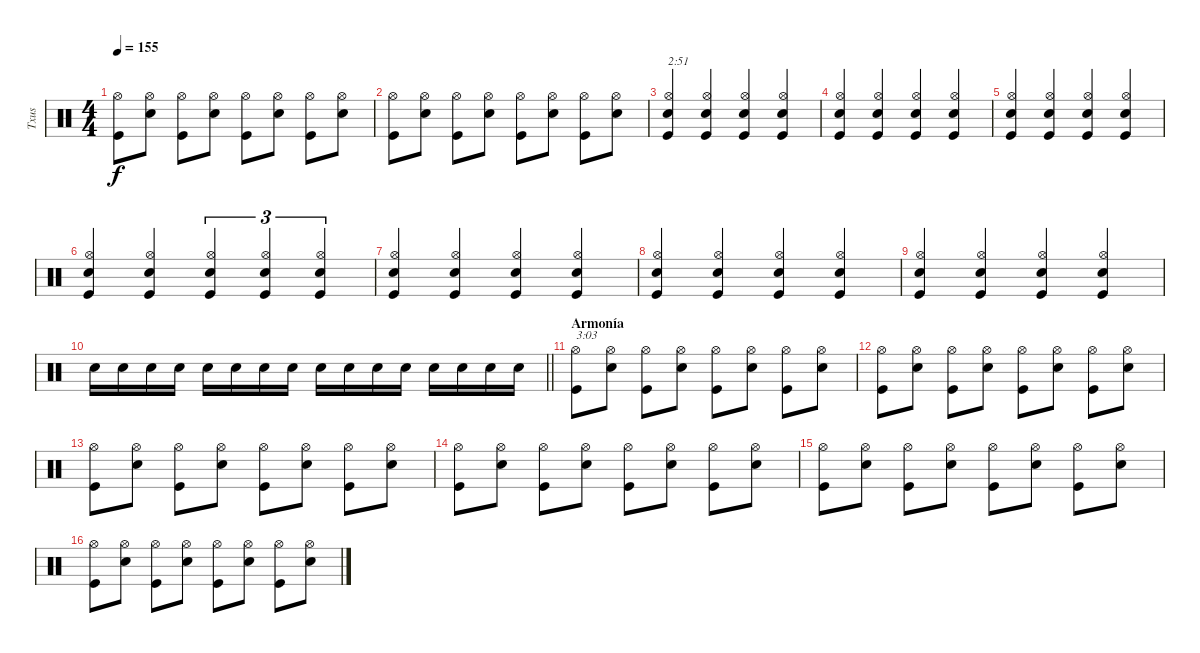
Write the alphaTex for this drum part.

\track ("Txus" "Txus") {instrument percussion}
\staff {score}
\articulation defaults
\ts (4 4)
\tempo 155
\clef neutral
\ks c
("Kick (hit)" "Hi-Hat (open)").8{dy f} ("Snare (hit) 2" "Hi-Hat (open)").8 ("Kick (hit)" "Hi-Hat (open)").8 ("Snare (hit) 2" "Hi-Hat (open)").8 ("Kick (hit)" "Hi-Hat (open)").8 ("Snare (hit) 2" "Hi-Hat (open)").8 ("Kick (hit)" "Hi-Hat (open)").8 ("Snare (hit) 2" "Hi-Hat (open)").8 |
("Kick (hit)" "Hi-Hat (open)").8 ("Snare (hit) 2" "Hi-Hat (open)").8 ("Kick (hit)" "Hi-Hat (open)").8 ("Snare (hit) 2" "Hi-Hat (open)").8 ("Kick (hit)" "Hi-Hat (open)").8 ("Snare (hit) 2" "Hi-Hat (open)").8 ("Kick (hit)" "Hi-Hat (open)").8 ("Snare (hit) 2" "Hi-Hat (open)").8 |
("Kick (hit)" "Snare (hit) 2" "Hi-Hat (open)").4{txt "2:51"} ("Kick (hit)" "Snare (hit) 2" "Hi-Hat (open)").4 ("Kick (hit)" "Snare (hit) 2" "Hi-Hat (open)").4 ("Kick (hit)" "Snare (hit) 2" "Hi-Hat (open)").4 |
("Kick (hit)" "Snare (hit) 2" "Hi-Hat (open)").4 ("Kick (hit)" "Snare (hit) 2" "Hi-Hat (open)").4 ("Kick (hit)" "Snare (hit) 2" "Hi-Hat (open)").4 ("Kick (hit)" "Snare (hit) 2" "Hi-Hat (open)").4 |
("Kick (hit)" "Snare (hit) 2" "Hi-Hat (open)").4 ("Kick (hit)" "Snare (hit) 2" "Hi-Hat (open)").4 ("Kick (hit)" "Snare (hit) 2" "Hi-Hat (open)").4 ("Kick (hit)" "Snare (hit) 2" "Hi-Hat (open)").4 |
("Kick (hit)" "Snare (hit) 2" "Hi-Hat (open)").4 ("Kick (hit)" "Snare (hit) 2" "Hi-Hat (open)").4 ("Kick (hit)" "Snare (hit) 2" "Hi-Hat (open)").4{tu (3 2)} ("Kick (hit)" "Snare (hit) 2" "Hi-Hat (open)").4{tu (3 2)} ("Kick (hit)" "Snare (hit) 2" "Hi-Hat (open)").4{tu (3 2)} |
("Kick (hit)" "Snare (hit) 2" "Hi-Hat (open)").4 ("Kick (hit)" "Snare (hit) 2" "Hi-Hat (open)").4 ("Kick (hit)" "Snare (hit) 2" "Hi-Hat (open)").4 ("Kick (hit)" "Snare (hit) 2" "Hi-Hat (open)").4 |
("Kick (hit)" "Snare (hit) 2" "Hi-Hat (open)").4 ("Kick (hit)" "Snare (hit) 2" "Hi-Hat (open)").4 ("Kick (hit)" "Snare (hit) 2" "Hi-Hat (open)").4 ("Kick (hit)" "Snare (hit) 2" "Hi-Hat (open)").4 |
("Kick (hit)" "Snare (hit) 2" "Hi-Hat (open)").4 ("Kick (hit)" "Snare (hit) 2" "Hi-Hat (open)").4 ("Kick (hit)" "Snare (hit) 2" "Hi-Hat (open)").4 ("Kick (hit)" "Snare (hit) 2" "Hi-Hat (open)").4 |
\barLineRight lightlight "Snare (hit) 2".16 "Snare (hit) 2".16 "Snare (hit) 2".16 "Snare (hit) 2".16 "Snare (hit) 2".16 "Snare (hit) 2".16 "Snare (hit) 2".16 "Snare (hit) 2".16 "Snare (hit) 2".16 "Snare (hit) 2".16 "Snare (hit) 2".16 "Snare (hit) 2".16 "Snare (hit) 2".16 "Snare (hit) 2".16 "Snare (hit) 2".16 "Snare (hit) 2".16
|
\section ("" "Armonía")
("Kick (hit)" "Hi-Hat (open)").8{txt "3:03"} ("Snare (hit) 2" "Hi-Hat (open)").8 ("Kick (hit)" "Hi-Hat (open)").8 ("Snare (hit) 2" "Hi-Hat (open)").8 ("Kick (hit)" "Hi-Hat (open)").8 ("Snare (hit) 2" "Hi-Hat (open)").8 ("Kick (hit)" "Hi-Hat (open)").8 ("Snare (hit) 2" "Hi-Hat (open)").8 |
("Kick (hit)" "Hi-Hat (open)").8 ("Snare (hit) 2" "Hi-Hat (open)").8 ("Kick (hit)" "Hi-Hat (open)").8 ("Snare (hit) 2" "Hi-Hat (open)").8 ("Kick (hit)" "Hi-Hat (open)").8 ("Snare (hit) 2" "Hi-Hat (open)").8 ("Kick (hit)" "Hi-Hat (open)").8 ("Snare (hit) 2" "Hi-Hat (open)").8 |
("Kick (hit)" "Hi-Hat (open)").8 ("Snare (hit) 2" "Hi-Hat (open)").8 ("Kick (hit)" "Hi-Hat (open)").8 ("Snare (hit) 2" "Hi-Hat (open)").8 ("Kick (hit)" "Hi-Hat (open)").8 ("Snare (hit) 2" "Hi-Hat (open)").8 ("Kick (hit)" "Hi-Hat (open)").8 ("Snare (hit) 2" "Hi-Hat (open)").8 |
("Kick (hit)" "Hi-Hat (open)").8 ("Snare (hit) 2" "Hi-Hat (open)").8 ("Kick (hit)" "Hi-Hat (open)").8 ("Snare (hit) 2" "Hi-Hat (open)").8 ("Kick (hit)" "Hi-Hat (open)").8 ("Snare (hit) 2" "Hi-Hat (open)").8 ("Kick (hit)" "Hi-Hat (open)").8 ("Snare (hit) 2" "Hi-Hat (open)").8 |
("Kick (hit)" "Hi-Hat (open)").8 ("Snare (hit) 2" "Hi-Hat (open)").8 ("Kick (hit)" "Hi-Hat (open)").8 ("Snare (hit) 2" "Hi-Hat (open)").8 ("Kick (hit)" "Hi-Hat (open)").8 ("Snare (hit) 2" "Hi-Hat (open)").8 ("Kick (hit)" "Hi-Hat (open)").8 ("Snare (hit) 2" "Hi-Hat (open)").8 |
("Kick (hit)" "Hi-Hat (open)").8 ("Snare (hit) 2" "Hi-Hat (open)").8 ("Kick (hit)" "Hi-Hat (open)").8 ("Snare (hit) 2" "Hi-Hat (open)").8 ("Kick (hit)" "Hi-Hat (open)").8 ("Snare (hit) 2" "Hi-Hat (open)").8 ("Kick (hit)" "Hi-Hat (open)").8 ("Snare (hit) 2" "Hi-Hat (open)").8
